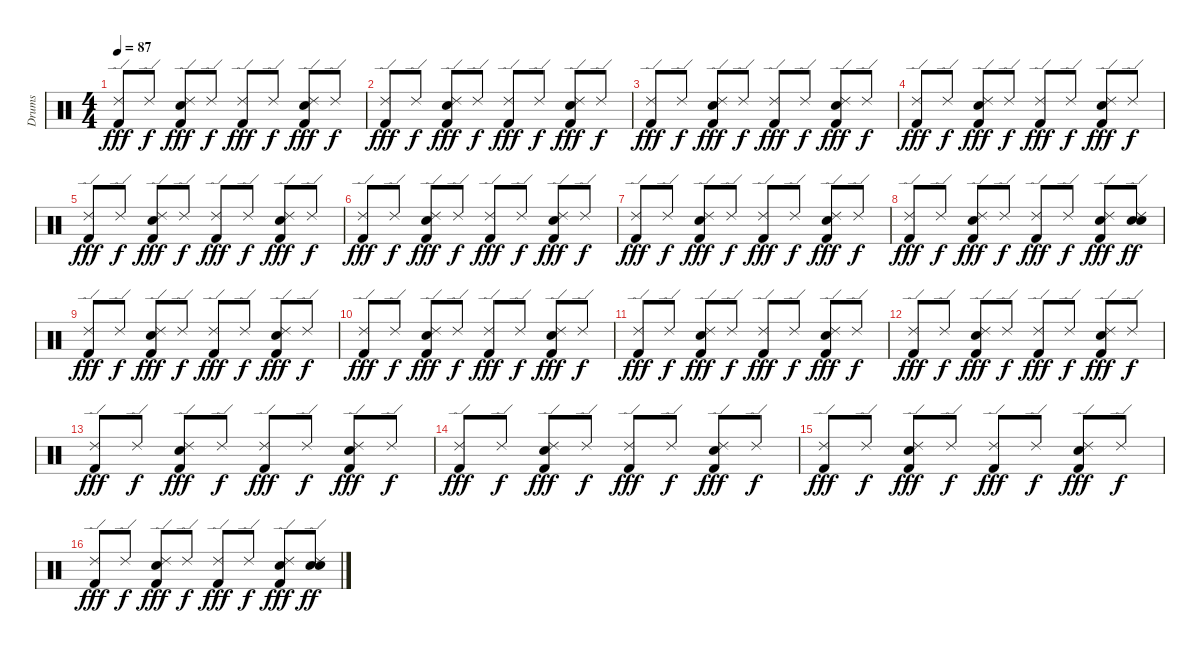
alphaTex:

\track ("Drums" "Drums") {instrument percussion}
\staff {score}
\articulation defaults
\ts (4 4)
\tempo 87
\clef neutral
\ks c
("Kick (hit) 2" "Ride (edge) 2").8{dy fff} "Ride (edge) 2".8{dy f} ("Electric Snare (hit)" "Kick (hit) 2" "Ride (edge) 2").8{dy fff} "Ride (edge) 2".8{dy f} ("Kick (hit) 2" "Ride (edge) 2").8{dy fff} "Ride (edge) 2".8{dy f} ("Electric Snare (hit)" "Kick (hit) 2" "Ride (edge) 2").8{dy fff} "Ride (edge) 2".8{dy f} |
("Kick (hit) 2" "Ride (edge) 2").8{dy fff} "Ride (edge) 2".8{dy f} ("Electric Snare (hit)" "Kick (hit) 2" "Ride (edge) 2").8{dy fff} "Ride (edge) 2".8{dy f} ("Kick (hit) 2" "Ride (edge) 2").8{dy fff} "Ride (edge) 2".8{dy f} ("Electric Snare (hit)" "Kick (hit) 2" "Ride (edge) 2").8{dy fff} "Ride (edge) 2".8{dy f} |
("Kick (hit) 2" "Ride (edge) 2").8{dy fff} "Ride (edge) 2".8{dy f} ("Electric Snare (hit)" "Kick (hit) 2" "Ride (edge) 2").8{dy fff} "Ride (edge) 2".8{dy f} ("Kick (hit) 2" "Ride (edge) 2").8{dy fff} "Ride (edge) 2".8{dy f} ("Electric Snare (hit)" "Kick (hit) 2" "Ride (edge) 2").8{dy fff} "Ride (edge) 2".8{dy f} |
("Kick (hit) 2" "Ride (edge) 2").8{dy fff} "Ride (edge) 2".8{dy f} ("Electric Snare (hit)" "Kick (hit) 2" "Ride (edge) 2").8{dy fff} "Ride (edge) 2".8{dy f} ("Kick (hit) 2" "Ride (edge) 2").8{dy fff} "Ride (edge) 2".8{dy f} ("Electric Snare (hit)" "Kick (hit) 2" "Ride (edge) 2").8{dy fff} "Ride (edge) 2".8{dy f} |
("Kick (hit) 2" "Ride (edge) 2").8{dy fff} "Ride (edge) 2".8{dy f} ("Electric Snare (hit)" "Kick (hit) 2" "Ride (edge) 2").8{dy fff} "Ride (edge) 2".8{dy f} ("Kick (hit) 2" "Ride (edge) 2").8{dy fff} "Ride (edge) 2".8{dy f} ("Electric Snare (hit)" "Kick (hit) 2" "Ride (edge) 2").8{dy fff} "Ride (edge) 2".8{dy f} |
("Kick (hit) 2" "Ride (edge) 2").8{dy fff} "Ride (edge) 2".8{dy f} ("Electric Snare (hit)" "Kick (hit) 2" "Ride (edge) 2").8{dy fff} "Ride (edge) 2".8{dy f} ("Kick (hit) 2" "Ride (edge) 2").8{dy fff} "Ride (edge) 2".8{dy f} ("Electric Snare (hit)" "Kick (hit) 2" "Ride (edge) 2").8{dy fff} "Ride (edge) 2".8{dy f} |
("Kick (hit) 2" "Ride (edge) 2").8{dy fff} "Ride (edge) 2".8{dy f} ("Electric Snare (hit)" "Kick (hit) 2" "Ride (edge) 2").8{dy fff} "Ride (edge) 2".8{dy f} ("Kick (hit) 2" "Ride (edge) 2").8{dy fff} "Ride (edge) 2".8{dy f} ("Electric Snare (hit)" "Kick (hit) 2" "Ride (edge) 2").8{dy fff} "Ride (edge) 2".8{dy f} |
("Kick (hit) 2" "Ride (edge) 2").8{dy fff} "Ride (edge) 2".8{dy f} ("Electric Snare (hit)" "Kick (hit) 2" "Ride (edge) 2").8{dy fff} "Ride (edge) 2".8{dy f} ("Kick (hit) 2" "Ride (edge) 2").8{dy fff} "Ride (edge) 2".8{dy f} ("Electric Snare (hit)" "Kick (hit) 2" "Ride (edge) 2").8{dy fff} ("Electric Snare (hit)" "Ride (edge) 2" "Electric Snare (hit)").8{dy ff} |
("Kick (hit) 2" "Ride (edge) 2").8{dy fff} "Ride (edge) 2".8{dy f} ("Electric Snare (hit)" "Kick (hit) 2" "Ride (edge) 2").8{dy fff} "Ride (edge) 2".8{dy f} ("Kick (hit) 2" "Ride (edge) 2").8{dy fff} "Ride (edge) 2".8{dy f} ("Electric Snare (hit)" "Kick (hit) 2" "Ride (edge) 2").8{dy fff} "Ride (edge) 2".8{dy f} |
("Kick (hit) 2" "Ride (edge) 2").8{dy fff} "Ride (edge) 2".8{dy f} ("Electric Snare (hit)" "Kick (hit) 2" "Ride (edge) 2").8{dy fff} "Ride (edge) 2".8{dy f} ("Kick (hit) 2" "Ride (edge) 2").8{dy fff} "Ride (edge) 2".8{dy f} ("Electric Snare (hit)" "Kick (hit) 2" "Ride (edge) 2").8{dy fff} "Ride (edge) 2".8{dy f} |
("Kick (hit) 2" "Ride (edge) 2").8{dy fff} "Ride (edge) 2".8{dy f} ("Electric Snare (hit)" "Kick (hit) 2" "Ride (edge) 2").8{dy fff} "Ride (edge) 2".8{dy f} ("Kick (hit) 2" "Ride (edge) 2").8{dy fff} "Ride (edge) 2".8{dy f} ("Electric Snare (hit)" "Kick (hit) 2" "Ride (edge) 2").8{dy fff} "Ride (edge) 2".8{dy f} |
("Kick (hit) 2" "Ride (edge) 2").8{dy fff} "Ride (edge) 2".8{dy f} ("Electric Snare (hit)" "Kick (hit) 2" "Ride (edge) 2").8{dy fff} "Ride (edge) 2".8{dy f} ("Kick (hit) 2" "Ride (edge) 2").8{dy fff} "Ride (edge) 2".8{dy f} ("Electric Snare (hit)" "Kick (hit) 2" "Ride (edge) 2").8{dy fff} "Ride (edge) 2".8{dy f} |
("Kick (hit) 2" "Ride (edge) 2").8{dy fff} "Ride (edge) 2".8{dy f} ("Electric Snare (hit)" "Kick (hit) 2" "Ride (edge) 2").8{dy fff} "Ride (edge) 2".8{dy f} ("Kick (hit) 2" "Ride (edge) 2").8{dy fff} "Ride (edge) 2".8{dy f} ("Electric Snare (hit)" "Kick (hit) 2" "Ride (edge) 2").8{dy fff} "Ride (edge) 2".8{dy f} |
("Kick (hit) 2" "Ride (edge) 2").8{dy fff} "Ride (edge) 2".8{dy f} ("Electric Snare (hit)" "Kick (hit) 2" "Ride (edge) 2").8{dy fff} "Ride (edge) 2".8{dy f} ("Kick (hit) 2" "Ride (edge) 2").8{dy fff} "Ride (edge) 2".8{dy f} ("Electric Snare (hit)" "Kick (hit) 2" "Ride (edge) 2").8{dy fff} "Ride (edge) 2".8{dy f} |
("Kick (hit) 2" "Ride (edge) 2").8{dy fff} "Ride (edge) 2".8{dy f} ("Electric Snare (hit)" "Kick (hit) 2" "Ride (edge) 2").8{dy fff} "Ride (edge) 2".8{dy f} ("Kick (hit) 2" "Ride (edge) 2").8{dy fff} "Ride (edge) 2".8{dy f} ("Electric Snare (hit)" "Kick (hit) 2" "Ride (edge) 2").8{dy fff} "Ride (edge) 2".8{dy f} |
("Kick (hit) 2" "Ride (edge) 2").8{dy fff} "Ride (edge) 2".8{dy f} ("Electric Snare (hit)" "Kick (hit) 2" "Ride (edge) 2").8{dy fff} "Ride (edge) 2".8{dy f} ("Kick (hit) 2" "Ride (edge) 2").8{dy fff} "Ride (edge) 2".8{dy f} ("Electric Snare (hit)" "Kick (hit) 2" "Ride (edge) 2").8{dy fff} ("Electric Snare (hit)" "Ride (edge) 2" "Electric Snare (hit)").8{dy ff}
